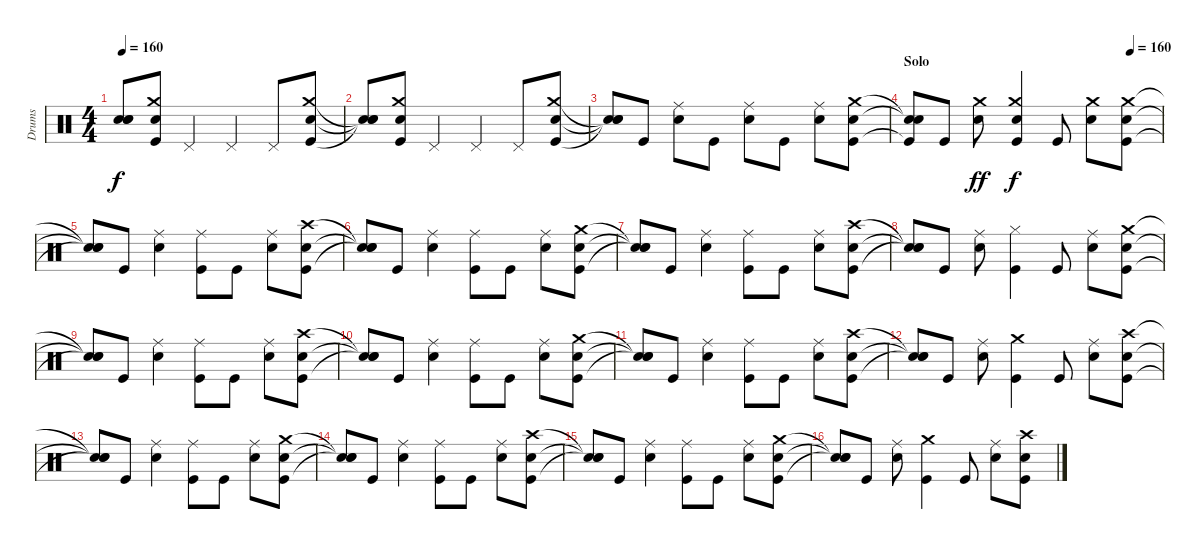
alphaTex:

\track ("Drums" "Drums") {instrument percussion}
\staff {score}
\articulation defaults
\ts (4 4)
\tempo 160
\clef neutral
\ks c
("Snare (hit)"{t} "Electric Snare (hit)"{t} "Snare (hit)"{t}).8{dy f} ("Crash medium (hit)" "Electric Snare (hit)" "Kick (hit)").8 "Pedal Hi-Hat (hit)".4 "Pedal Hi-Hat (hit)".4 "Pedal Hi-Hat (hit)".8 ("Crash medium (hit)" "Electric Snare (hit)" "Kick (hit)").8 |
("Snare (hit)"{t} "Electric Snare (hit)"{t} "Snare (hit)"{t}).8 ("Crash medium (hit)" "Electric Snare (hit)" "Kick (hit)").8 "Pedal Hi-Hat (hit)".4 "Pedal Hi-Hat (hit)".4 "Pedal Hi-Hat (hit)".8 ("Crash medium (hit)" "Electric Snare (hit)" "Kick (hit)").8 |
("Snare (hit)"{t} "Snare (hit)"{t} "Snare (hit)"{t}).8 "Kick (hit)".8 ("Ride (middle)" "Electric Snare (hit)").8 "Kick (hit)".8 ("Ride (middle)" "Electric Snare (hit)").8 "Kick (hit)".8 ("Ride (middle)" "Electric Snare (hit)").8 ("Crash medium (hit)" "Electric Snare (hit)" "Kick (hit)").8 |
\section ("" "Solo")
\tempo (160 0.875)
("Snare (hit)"{t} "Snare (hit)"{t} "Kick (hit)"{t}).8 "Kick (hit)".8 ("Crash medium (hit)" "Electric Snare (hit)").8{dy ff} ("Crash medium (hit)" "Electric Snare (hit)" "Kick (hit)").4{dy f} "Kick (hit)".8 ("Crash medium (hit)" "Electric Snare (hit)").8 ("Crash medium (hit)" "Electric Snare (hit)" "Kick (hit)").8 |
("Snare (hit)"{t} "Snare (hit)"{t} "Snare (hit)"{t}).8 "Kick (hit)".8 ("Ride (middle)" "Electric Snare (hit)").4 ("Ride (middle)" "Kick (hit)").8 "Kick (hit)".8 ("Ride (middle)" "Electric Snare (hit)").8 ("Crash high (hit)" "Electric Snare (hit)" "Kick (hit)").8 |
("Snare (hit)"{t} "Snare (hit)"{t} "Snare (hit)"{t}).8 "Kick (hit)".8 ("Ride (middle)" "Electric Snare (hit)").4 ("Ride (middle)" "Kick (hit)").8 "Kick (hit)".8 ("Ride (middle)" "Electric Snare (hit)").8 ("Crash medium (hit)" "Electric Snare (hit)" "Kick (hit)").8 |
("Snare (hit)"{t} "Snare (hit)"{t} "Snare (hit)"{t}).8 "Kick (hit)".8 ("Ride (middle)" "Electric Snare (hit)").4 ("Ride (middle)" "Kick (hit)").8 "Kick (hit)".8 ("Ride (middle)" "Electric Snare (hit)").8 ("Crash high (hit)" "Electric Snare (hit)" "Kick (hit)").8 |
("Snare (hit)"{t} "Snare (hit)"{t} "Snare (hit)"{t}).8 "Kick (hit)".8 ("Ride (middle)" "Electric Snare (hit)").8 ("Hi-Hat (closed)" "Kick (hit)").4 "Kick (hit)".8 ("Ride (middle)" "Electric Snare (hit)").8 ("Crash medium (hit)" "Electric Snare (hit)" "Kick (hit)").8 |
("Snare (hit)"{t} "Snare (hit)"{t} "Snare (hit)"{t}).8 "Kick (hit)".8 ("Ride (middle)" "Electric Snare (hit)").4 ("Ride (middle)" "Kick (hit)").8 "Kick (hit)".8 ("Ride (middle)" "Electric Snare (hit)").8 ("Crash high (hit)" "Electric Snare (hit)" "Kick (hit)").8 |
("Snare (hit)"{t} "Snare (hit)"{t} "Snare (hit)"{t}).8 "Kick (hit)".8 ("Ride (middle)" "Electric Snare (hit)").4 ("Ride (middle)" "Kick (hit)").8 "Kick (hit)".8 ("Ride (middle)" "Electric Snare (hit)").8 ("Crash medium (hit)" "Electric Snare (hit)" "Kick (hit)").8 |
("Snare (hit)"{t} "Snare (hit)"{t} "Snare (hit)"{t}).8 "Kick (hit)".8 ("Ride (middle)" "Electric Snare (hit)").4 ("Ride (middle)" "Kick (hit)").8 "Kick (hit)".8 ("Ride (middle)" "Electric Snare (hit)").8 ("Crash high (hit)" "Electric Snare (hit)" "Kick (hit)").8 |
("Snare (hit)"{t} "Snare (hit)"{t} "Snare (hit)"{t}).8 "Kick (hit)".8 ("Ride (middle)" "Electric Snare (hit)").8 ("Crash medium (hit)" "Kick (hit)").4 "Kick (hit)".8 ("Ride (middle)" "Electric Snare (hit)").8 ("Crash high (hit)" "Electric Snare (hit)" "Kick (hit)").8 |
("Snare (hit)"{t} "Snare (hit)"{t} "Snare (hit)"{t}).8 "Kick (hit)".8 ("Ride (middle)" "Electric Snare (hit)").4 ("Ride (middle)" "Kick (hit)").8 "Kick (hit)".8 ("Ride (middle)" "Electric Snare (hit)").8 ("Crash medium (hit)" "Electric Snare (hit)" "Kick (hit)").8 |
("Snare (hit)"{t} "Snare (hit)"{t} "Snare (hit)"{t}).8 "Kick (hit)".8 ("Ride (middle)" "Electric Snare (hit)").4 ("Ride (middle)" "Kick (hit)").8 "Kick (hit)".8 ("Ride (middle)" "Electric Snare (hit)").8 ("Crash high (hit)" "Electric Snare (hit)" "Kick (hit)").8 |
("Snare (hit)"{t} "Snare (hit)"{t} "Snare (hit)"{t}).8 "Kick (hit)".8 ("Ride (middle)" "Electric Snare (hit)").4 ("Ride (middle)" "Kick (hit)").8 "Kick (hit)".8 ("Ride (middle)" "Electric Snare (hit)").8 ("Crash medium (hit)" "Electric Snare (hit)" "Kick (hit)").8 |
("Snare (hit)"{t} "Snare (hit)"{t} "Snare (hit)"{t}).8 "Kick (hit)".8 ("Ride (middle)" "Electric Snare (hit)").8 ("Crash medium (hit)" "Kick (hit)").4 "Kick (hit)".8 ("Ride (middle)" "Electric Snare (hit)").8 ("Crash high (hit)" "Electric Snare (hit)" "Kick (hit)").8
